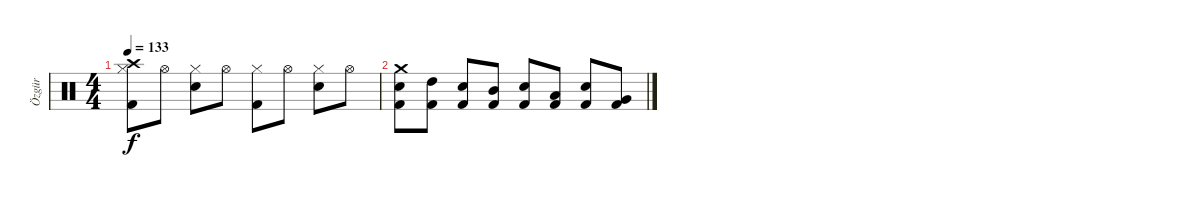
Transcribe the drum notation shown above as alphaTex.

\track ("Özgür" "Özgür") {instrument percussion}
\staff {score}
\articulation defaults
\ts (4 4)
\tempo 133
\clef neutral
\ks c
("Kick (hit) 2" "Hi-Hat (closed)" "Crash high (hit)").8{dy f} "Hi-Hat (open)".8 ("Snare (hit) 2" "Hi-Hat (closed)").8 "Hi-Hat (open)".8 ("Kick (hit) 2" "Hi-Hat (closed)").8 "Hi-Hat (open)".8 ("Snare (hit) 2" "Hi-Hat (closed)").8 "Hi-Hat (open)".8 |
("Kick (hit) 2" "Snare (hit) 2" "Crash medium (hit)").8 ("Kick (hit) 2" "High Tom (hit)").8 ("Kick (hit) 2" "Snare (hit) 2").8 ("Kick (hit) 2" "Mid Tom (hit)").8 ("Kick (hit) 2" "Snare (hit) 2").8 ("Kick (hit) 2" "Low Tom (hit)").8 ("Kick (hit) 2" "Snare (hit) 2").8 ("Kick (hit) 2" "Very Low Tom (hit)").8
